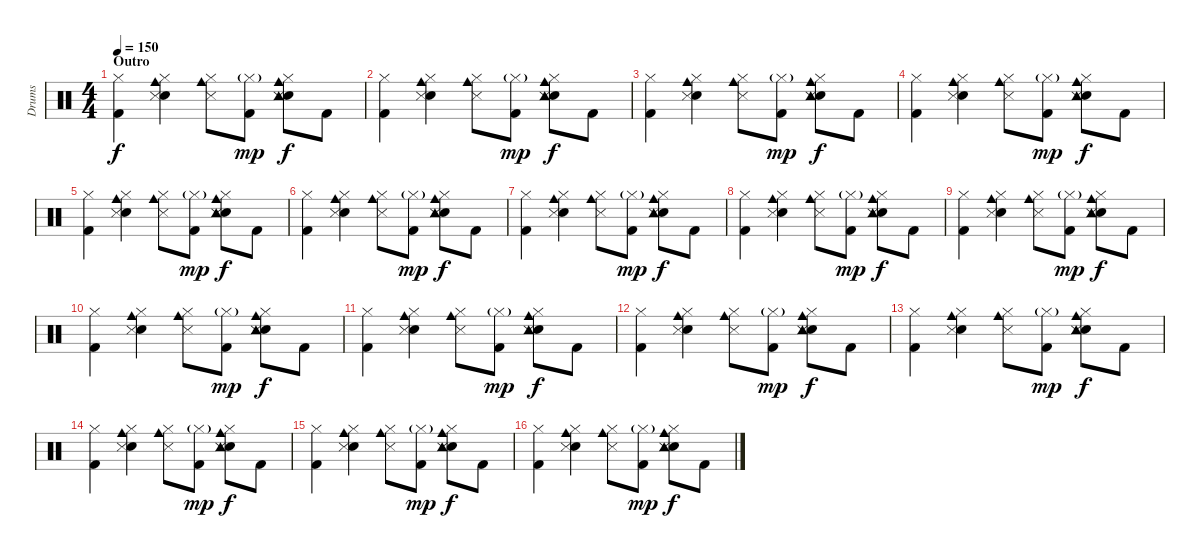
\track ("Drums" "Drums") {instrument percussion}
\staff {score}
\articulation defaults
\ts (4 4)
\section ("" "Outro")
\tempo 150
\clef neutral
\ks c
("Kick (hit) 2" "Hi-Hat (closed)").4{dy f} ("Electric Snare (hit)" "Hi-Hat (closed)" "Cowbell medium (hit)" "Snare (side stick) 3").4 ("Hi-Hat (closed)" "Cowbell medium (hit)" "Snare (side stick) 3").8 ("Kick (hit) 2" "Hi-Hat (closed)"{g}).8{dy mp} ("Electric Snare (hit)" "Hi-Hat (closed)" "Cowbell medium (hit)" "Snare (side stick) 3" "Tambourine (hit)").8{dy f} "Kick (hit) 2".8 |
("Kick (hit) 2" "Hi-Hat (closed)").4 ("Electric Snare (hit)" "Hi-Hat (closed)" "Cowbell medium (hit)" "Snare (side stick) 3").4 ("Hi-Hat (closed)" "Cowbell medium (hit)" "Snare (side stick) 3").8 ("Kick (hit) 2" "Hi-Hat (closed)"{g}).8{dy mp} ("Electric Snare (hit)" "Hi-Hat (closed)" "Cowbell medium (hit)" "Snare (side stick) 3" "Tambourine (hit)").8{dy f} "Kick (hit) 2".8 |
("Kick (hit) 2" "Hi-Hat (closed)").4 ("Electric Snare (hit)" "Hi-Hat (closed)" "Cowbell medium (hit)" "Snare (side stick) 3").4 ("Hi-Hat (closed)" "Cowbell medium (hit)" "Snare (side stick) 3").8 ("Kick (hit) 2" "Hi-Hat (closed)"{g}).8{dy mp} ("Electric Snare (hit)" "Hi-Hat (closed)" "Cowbell medium (hit)" "Snare (side stick) 3" "Tambourine (hit)").8{dy f} "Kick (hit) 2".8 |
("Kick (hit) 2" "Hi-Hat (closed)").4 ("Electric Snare (hit)" "Hi-Hat (closed)" "Cowbell medium (hit)" "Snare (side stick) 3").4 ("Hi-Hat (closed)" "Cowbell medium (hit)" "Snare (side stick) 3").8 ("Kick (hit) 2" "Hi-Hat (closed)"{g}).8{dy mp} ("Electric Snare (hit)" "Hi-Hat (closed)" "Cowbell medium (hit)" "Snare (side stick) 3" "Tambourine (hit)").8{dy f} "Kick (hit) 2".8 |
("Kick (hit) 2" "Hi-Hat (closed)").4 ("Electric Snare (hit)" "Hi-Hat (closed)" "Cowbell medium (hit)" "Snare (side stick) 3").4 ("Hi-Hat (closed)" "Cowbell medium (hit)" "Snare (side stick) 3").8 ("Kick (hit) 2" "Hi-Hat (closed)"{g}).8{dy mp} ("Electric Snare (hit)" "Hi-Hat (closed)" "Cowbell medium (hit)" "Snare (side stick) 3" "Tambourine (hit)").8{dy f} "Kick (hit) 2".8 |
("Kick (hit) 2" "Hi-Hat (closed)").4 ("Electric Snare (hit)" "Hi-Hat (closed)" "Cowbell medium (hit)" "Snare (side stick) 3").4 ("Hi-Hat (closed)" "Cowbell medium (hit)" "Snare (side stick) 3").8 ("Kick (hit) 2" "Hi-Hat (closed)"{g}).8{dy mp} ("Electric Snare (hit)" "Hi-Hat (closed)" "Cowbell medium (hit)" "Snare (side stick) 3" "Tambourine (hit)").8{dy f} "Kick (hit) 2".8 |
("Kick (hit) 2" "Hi-Hat (closed)").4 ("Electric Snare (hit)" "Hi-Hat (closed)" "Cowbell medium (hit)" "Snare (side stick) 3").4 ("Hi-Hat (closed)" "Cowbell medium (hit)" "Snare (side stick) 3").8 ("Kick (hit) 2" "Hi-Hat (closed)"{g}).8{dy mp} ("Electric Snare (hit)" "Hi-Hat (closed)" "Cowbell medium (hit)" "Snare (side stick) 3" "Tambourine (hit)").8{dy f} "Kick (hit) 2".8 |
("Kick (hit) 2" "Hi-Hat (closed)").4 ("Electric Snare (hit)" "Hi-Hat (closed)" "Cowbell medium (hit)" "Snare (side stick) 3").4 ("Hi-Hat (closed)" "Cowbell medium (hit)" "Snare (side stick) 3").8 ("Kick (hit) 2" "Hi-Hat (closed)"{g}).8{dy mp} ("Electric Snare (hit)" "Hi-Hat (closed)" "Cowbell medium (hit)" "Snare (side stick) 3" "Tambourine (hit)").8{dy f} "Kick (hit) 2".8 |
("Kick (hit) 2" "Hi-Hat (closed)").4 ("Electric Snare (hit)" "Hi-Hat (closed)" "Cowbell medium (hit)" "Snare (side stick) 3").4 ("Hi-Hat (closed)" "Cowbell medium (hit)" "Snare (side stick) 3").8 ("Kick (hit) 2" "Hi-Hat (closed)"{g}).8{dy mp} ("Electric Snare (hit)" "Hi-Hat (closed)" "Cowbell medium (hit)" "Snare (side stick) 3" "Tambourine (hit)").8{dy f} "Kick (hit) 2".8 |
("Kick (hit) 2" "Hi-Hat (closed)").4 ("Electric Snare (hit)" "Hi-Hat (closed)" "Cowbell medium (hit)" "Snare (side stick) 3").4 ("Hi-Hat (closed)" "Cowbell medium (hit)" "Snare (side stick) 3").8 ("Kick (hit) 2" "Hi-Hat (closed)"{g}).8{dy mp} ("Electric Snare (hit)" "Hi-Hat (closed)" "Cowbell medium (hit)" "Snare (side stick) 3" "Tambourine (hit)").8{dy f} "Kick (hit) 2".8 |
("Kick (hit) 2" "Hi-Hat (closed)").4 ("Electric Snare (hit)" "Hi-Hat (closed)" "Cowbell medium (hit)" "Snare (side stick) 3").4 ("Hi-Hat (closed)" "Cowbell medium (hit)" "Snare (side stick) 3").8 ("Kick (hit) 2" "Hi-Hat (closed)"{g}).8{dy mp} ("Electric Snare (hit)" "Hi-Hat (closed)" "Cowbell medium (hit)" "Snare (side stick) 3" "Tambourine (hit)").8{dy f} "Kick (hit) 2".8 |
("Kick (hit) 2" "Hi-Hat (closed)").4 ("Electric Snare (hit)" "Hi-Hat (closed)" "Cowbell medium (hit)" "Snare (side stick) 3").4 ("Hi-Hat (closed)" "Cowbell medium (hit)" "Snare (side stick) 3").8 ("Kick (hit) 2" "Hi-Hat (closed)"{g}).8{dy mp} ("Electric Snare (hit)" "Hi-Hat (closed)" "Cowbell medium (hit)" "Snare (side stick) 3" "Tambourine (hit)").8{dy f} "Kick (hit) 2".8 |
("Kick (hit) 2" "Hi-Hat (closed)").4 ("Electric Snare (hit)" "Hi-Hat (closed)" "Cowbell medium (hit)" "Snare (side stick) 3").4 ("Hi-Hat (closed)" "Cowbell medium (hit)" "Snare (side stick) 3").8 ("Kick (hit) 2" "Hi-Hat (closed)"{g}).8{dy mp} ("Electric Snare (hit)" "Hi-Hat (closed)" "Cowbell medium (hit)" "Snare (side stick) 3" "Tambourine (hit)").8{dy f} "Kick (hit) 2".8 |
("Kick (hit) 2" "Hi-Hat (closed)").4 ("Electric Snare (hit)" "Hi-Hat (closed)" "Cowbell medium (hit)" "Snare (side stick) 3").4 ("Hi-Hat (closed)" "Cowbell medium (hit)" "Snare (side stick) 3").8 ("Kick (hit) 2" "Hi-Hat (closed)"{g}).8{dy mp} ("Electric Snare (hit)" "Hi-Hat (closed)" "Cowbell medium (hit)" "Snare (side stick) 3" "Tambourine (hit)").8{dy f} "Kick (hit) 2".8 |
("Kick (hit) 2" "Hi-Hat (closed)").4 ("Electric Snare (hit)" "Hi-Hat (closed)" "Cowbell medium (hit)" "Snare (side stick) 3").4 ("Hi-Hat (closed)" "Cowbell medium (hit)" "Snare (side stick) 3").8 ("Kick (hit) 2" "Hi-Hat (closed)"{g}).8{dy mp} ("Electric Snare (hit)" "Hi-Hat (closed)" "Cowbell medium (hit)" "Snare (side stick) 3" "Tambourine (hit)").8{dy f} "Kick (hit) 2".8 |
("Kick (hit) 2" "Hi-Hat (closed)").4 ("Electric Snare (hit)" "Hi-Hat (closed)" "Cowbell medium (hit)" "Snare (side stick) 3").4 ("Hi-Hat (closed)" "Cowbell medium (hit)" "Snare (side stick) 3").8 ("Kick (hit) 2" "Hi-Hat (closed)"{g}).8{dy mp} ("Electric Snare (hit)" "Hi-Hat (closed)" "Cowbell medium (hit)" "Snare (side stick) 3" "Tambourine (hit)").8{dy f} "Kick (hit) 2".8
